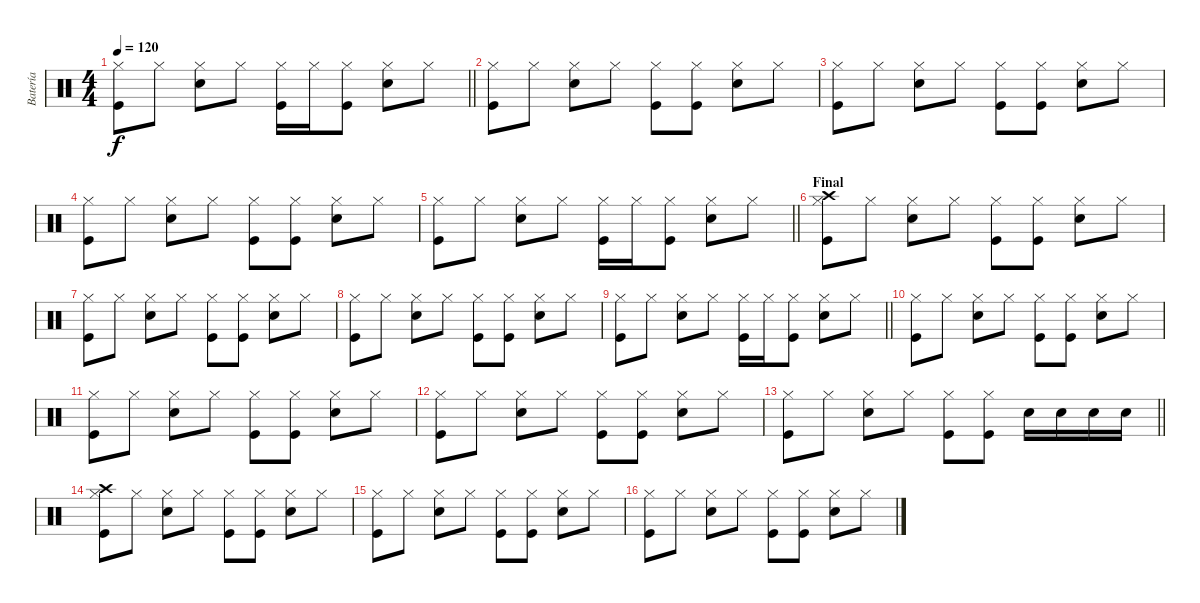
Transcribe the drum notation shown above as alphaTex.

\track ("Batería" "Batería") {instrument percussion}
\staff {score}
\articulation defaults
\ts (4 4)
\tempo 120
\clef neutral
\barLineRight lightlight
\ks c
("Hi-Hat (closed)" "Kick (hit)").8{dy f} "Hi-Hat (closed)".8 ("Hi-Hat (closed)" "Electric Snare (hit)").8 "Hi-Hat (closed)".8 ("Hi-Hat (closed)" "Kick (hit)").16 "Hi-Hat (closed)".16 ("Hi-Hat (closed)" "Kick (hit)").8 ("Hi-Hat (closed)" "Electric Snare (hit)").8 "Hi-Hat (closed)".8 |
("Hi-Hat (closed)" "Kick (hit)").8 "Hi-Hat (closed)".8 ("Hi-Hat (closed)" "Electric Snare (hit)").8 "Hi-Hat (closed)".8 ("Hi-Hat (closed)" "Kick (hit)").8 ("Hi-Hat (closed)" "Kick (hit)").8 ("Hi-Hat (closed)" "Electric Snare (hit)").8 "Hi-Hat (closed)".8 |
("Hi-Hat (closed)" "Kick (hit)").8 "Hi-Hat (closed)".8 ("Hi-Hat (closed)" "Electric Snare (hit)").8 "Hi-Hat (closed)".8 ("Hi-Hat (closed)" "Kick (hit)").8 ("Hi-Hat (closed)" "Kick (hit)").8 ("Hi-Hat (closed)" "Electric Snare (hit)").8 "Hi-Hat (closed)".8 |
("Hi-Hat (closed)" "Kick (hit)").8 "Hi-Hat (closed)".8 ("Hi-Hat (closed)" "Electric Snare (hit)").8 "Hi-Hat (closed)".8 ("Hi-Hat (closed)" "Kick (hit)").8 ("Hi-Hat (closed)" "Kick (hit)").8 ("Hi-Hat (closed)" "Electric Snare (hit)").8 "Hi-Hat (closed)".8 |
\barLineRight lightlight
("Hi-Hat (closed)" "Kick (hit)").8 "Hi-Hat (closed)".8 ("Hi-Hat (closed)" "Electric Snare (hit)").8 "Hi-Hat (closed)".8 ("Hi-Hat (closed)" "Kick (hit)").16 "Hi-Hat (closed)".16 ("Hi-Hat (closed)" "Kick (hit)").8 ("Hi-Hat (closed)" "Electric Snare (hit)").8 "Hi-Hat (closed)".8 |
\section ("" "Final")
("Hi-Hat (closed)" "Kick (hit)" "Crash high (hit)").8 "Hi-Hat (closed)".8 ("Hi-Hat (closed)" "Electric Snare (hit)").8 "Hi-Hat (closed)".8 ("Hi-Hat (closed)" "Kick (hit)").8 ("Hi-Hat (closed)" "Kick (hit)").8 ("Hi-Hat (closed)" "Electric Snare (hit)").8 "Hi-Hat (closed)".8 |
("Hi-Hat (closed)" "Kick (hit)").8 "Hi-Hat (closed)".8 ("Hi-Hat (closed)" "Electric Snare (hit)").8 "Hi-Hat (closed)".8 ("Hi-Hat (closed)" "Kick (hit)").8 ("Hi-Hat (closed)" "Kick (hit)").8 ("Hi-Hat (closed)" "Electric Snare (hit)").8 "Hi-Hat (closed)".8 |
("Hi-Hat (closed)" "Kick (hit)").8 "Hi-Hat (closed)".8 ("Hi-Hat (closed)" "Electric Snare (hit)").8 "Hi-Hat (closed)".8 ("Hi-Hat (closed)" "Kick (hit)").8 ("Hi-Hat (closed)" "Kick (hit)").8 ("Hi-Hat (closed)" "Electric Snare (hit)").8 "Hi-Hat (closed)".8 |
\barLineRight lightlight
("Hi-Hat (closed)" "Kick (hit)").8 "Hi-Hat (closed)".8 ("Hi-Hat (closed)" "Electric Snare (hit)").8 "Hi-Hat (closed)".8 ("Hi-Hat (closed)" "Kick (hit)").16 "Hi-Hat (closed)".16 ("Hi-Hat (closed)" "Kick (hit)").8 ("Hi-Hat (closed)" "Electric Snare (hit)").8 "Hi-Hat (closed)".8 |
("Hi-Hat (closed)" "Kick (hit)").8 "Hi-Hat (closed)".8 ("Hi-Hat (closed)" "Electric Snare (hit)").8 "Hi-Hat (closed)".8 ("Hi-Hat (closed)" "Kick (hit)").8 ("Hi-Hat (closed)" "Kick (hit)").8 ("Hi-Hat (closed)" "Electric Snare (hit)").8 "Hi-Hat (closed)".8 |
("Hi-Hat (closed)" "Kick (hit)").8 "Hi-Hat (closed)".8 ("Hi-Hat (closed)" "Electric Snare (hit)").8 "Hi-Hat (closed)".8 ("Hi-Hat (closed)" "Kick (hit)").8 ("Hi-Hat (closed)" "Kick (hit)").8 ("Hi-Hat (closed)" "Electric Snare (hit)").8 "Hi-Hat (closed)".8 |
("Hi-Hat (closed)" "Kick (hit)").8 "Hi-Hat (closed)".8 ("Hi-Hat (closed)" "Electric Snare (hit)").8 "Hi-Hat (closed)".8 ("Hi-Hat (closed)" "Kick (hit)").8 ("Hi-Hat (closed)" "Kick (hit)").8 ("Hi-Hat (closed)" "Electric Snare (hit)").8 "Hi-Hat (closed)".8 |
\barLineRight lightlight
("Hi-Hat (closed)" "Kick (hit)").8 "Hi-Hat (closed)".8 ("Hi-Hat (closed)" "Electric Snare (hit)").8 "Hi-Hat (closed)".8 ("Hi-Hat (closed)" "Kick (hit)").8 ("Hi-Hat (closed)" "Kick (hit)").8 "Electric Snare (hit)".16 "Electric Snare (hit)".16 "Electric Snare (hit)".16 "Electric Snare (hit)".16 |
("Hi-Hat (closed)" "Kick (hit)" "Crash high (hit)").8 "Hi-Hat (closed)".8 ("Hi-Hat (closed)" "Electric Snare (hit)").8 "Hi-Hat (closed)".8 ("Hi-Hat (closed)" "Kick (hit)").8 ("Hi-Hat (closed)" "Kick (hit)").8 ("Hi-Hat (closed)" "Electric Snare (hit)").8 "Hi-Hat (closed)".8 |
("Hi-Hat (closed)" "Kick (hit)").8 "Hi-Hat (closed)".8 ("Hi-Hat (closed)" "Electric Snare (hit)").8 "Hi-Hat (closed)".8 ("Hi-Hat (closed)" "Kick (hit)").8 ("Hi-Hat (closed)" "Kick (hit)").8 ("Hi-Hat (closed)" "Electric Snare (hit)").8 "Hi-Hat (closed)".8 |
("Hi-Hat (closed)" "Kick (hit)").8 "Hi-Hat (closed)".8 ("Hi-Hat (closed)" "Electric Snare (hit)").8 "Hi-Hat (closed)".8 ("Hi-Hat (closed)" "Kick (hit)").8 ("Hi-Hat (closed)" "Kick (hit)").8 ("Hi-Hat (closed)" "Electric Snare (hit)").8 "Hi-Hat (closed)".8
